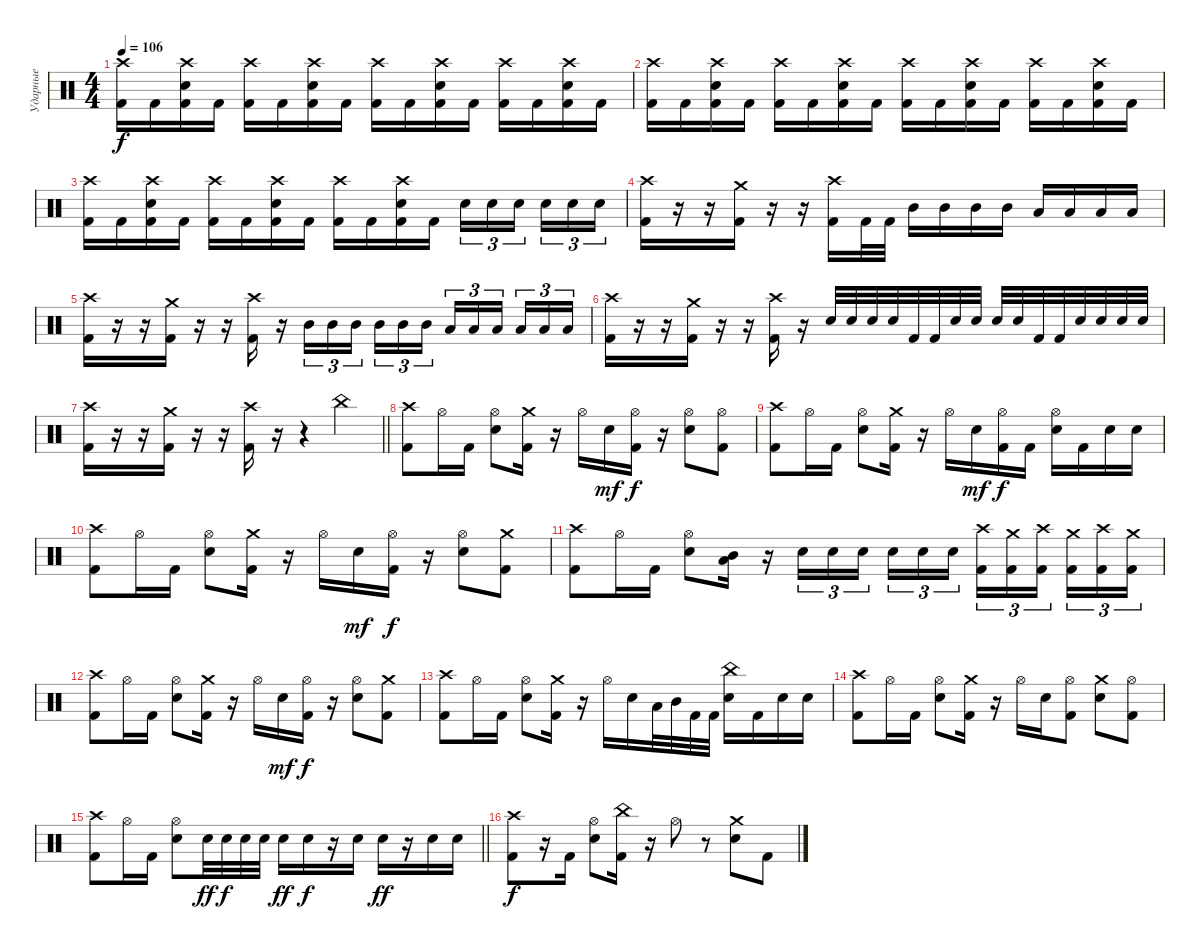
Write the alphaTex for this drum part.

\track ("Ударные" "Ударные") {instrument percussion}
\staff {score}
\articulation defaults
\ts (4 4)
\tempo 106
\clef neutral
\ks c
("Crash high (hit)" "Kick (hit) 2").16{dy f} "Kick (hit) 2".16 ("Crash high (hit)" "Electric Snare (hit)" "Kick (hit) 2").16 "Kick (hit) 2".16 ("Crash high (hit)" "Kick (hit) 2").16 "Kick (hit) 2".16 ("Crash high (hit)" "Electric Snare (hit)" "Kick (hit) 2").16 "Kick (hit) 2".16 ("Crash high (hit)" "Kick (hit) 2").16 "Kick (hit) 2".16 ("Crash high (hit)" "Electric Snare (hit)" "Kick (hit) 2").16 "Kick (hit) 2".16 ("Crash high (hit)" "Kick (hit) 2").16 "Kick (hit) 2".16 ("Crash high (hit)" "Electric Snare (hit)" "Kick (hit) 2").16 "Kick (hit) 2".16 |
("Crash high (hit)" "Kick (hit) 2").16 "Kick (hit) 2".16 ("Crash high (hit)" "Electric Snare (hit)" "Kick (hit) 2").16 "Kick (hit) 2".16 ("Crash high (hit)" "Kick (hit) 2").16 "Kick (hit) 2".16 ("Crash high (hit)" "Electric Snare (hit)" "Kick (hit) 2").16 "Kick (hit) 2".16 ("Crash high (hit)" "Kick (hit) 2").16 "Kick (hit) 2".16 ("Crash high (hit)" "Electric Snare (hit)" "Kick (hit) 2").16 "Kick (hit) 2".16 ("Crash high (hit)" "Kick (hit) 2").16 "Kick (hit) 2".16 ("Crash high (hit)" "Electric Snare (hit)" "Kick (hit) 2").16 "Kick (hit) 2".16 |
("Crash high (hit)" "Kick (hit) 2").16 "Kick (hit) 2".16 ("Crash high (hit)" "Electric Snare (hit)" "Kick (hit) 2").16 "Kick (hit) 2".16 ("Crash high (hit)" "Kick (hit) 2").16 "Kick (hit) 2".16 ("Crash high (hit)" "Electric Snare (hit)" "Kick (hit) 2").16 "Kick (hit) 2".16 ("Crash high (hit)" "Kick (hit) 2").16 "Kick (hit) 2".16 ("Crash high (hit)" "Electric Snare (hit)" "Kick (hit) 2").16 "Kick (hit) 2".16 "Electric Snare (hit)".16{tu (3 2)} "Electric Snare (hit)".16{tu (3 2)} "Electric Snare (hit)".16{tu (3 2) beam splitsecondary} "Electric Snare (hit)".16{tu (3 2)} "Electric Snare (hit)".16{tu (3 2)} "Electric Snare (hit)".16{tu (3 2)} |
("Crash high (hit)" "Kick (hit) 2").16 r.16 r.16 ("Crash medium (hit)" "Kick (hit) 2").16 r.16 r.16 ("Crash high (hit)" "Kick (hit) 2").16 "Kick (hit) 2".32 "Kick (hit) 2".32 "Mid Tom (hit)".16 "Mid Tom (hit)".16 "Mid Tom (hit)".16 "Mid Tom (hit)".16 "Low Tom (hit)".16 "Low Tom (hit)".16 "Low Floor Tom (hit)".16 "Low Floor Tom (hit)".16 |
("Crash high (hit)" "Kick (hit) 2").16 r.16 r.16 ("Crash medium (hit)" "Kick (hit) 2").16 r.16 r.16 ("Crash high (hit)" "Kick (hit) 2").16 r.16 "Mid Tom (hit)".16{tu (3 2)} "Mid Tom (hit)".16{tu (3 2)} "Mid Tom (hit)".16{tu (3 2) beam splitsecondary} "Mid Tom (hit)".16{tu (3 2)} "Mid Tom (hit)".16{tu (3 2)} "Mid Tom (hit)".16{tu (3 2)} "Low Tom (hit)".16{tu (3 2)} "Low Tom (hit)".16{tu (3 2)} "Low Floor Tom (hit)".16{tu (3 2) beam splitsecondary} "Low Floor Tom (hit)".16{tu (3 2)} "Low Floor Tom (hit)".16{tu (3 2)} "Low Floor Tom (hit)".16{tu (3 2)} |
("Crash high (hit)" "Kick (hit) 2").16 r.16 r.16 ("Crash medium (hit)" "Kick (hit) 2").16 r.16 r.16 ("Crash high (hit)" "Kick (hit) 2").16 r.16 "Electric Snare (hit)".32 "Electric Snare (hit)".32 "Electric Snare (hit)".32 "Electric Snare (hit)".32 "Kick (hit) 2".32 "Kick (hit) 2".32 "Electric Snare (hit)".32 "Electric Snare (hit)".32 "Electric Snare (hit)".32 "Electric Snare (hit)".32 "Kick (hit) 2".32 "Kick (hit) 2".32 "Electric Snare (hit)".32 "Electric Snare (hit)".32 "Electric Snare (hit)".32 "Electric Snare (hit)".32 |
\barLineRight lightlight
("Crash high (hit)" "Kick (hit) 2").16 r.16 r.16 ("Crash medium (hit)" "Kick (hit) 2").16 r.16 r.16 ("Crash high (hit)" "Kick (hit) 2").16 r.16 r.4 "China (hit)".4 |
("Crash high (hit)" "Kick (hit) 2").8 "Hi-Hat (open)".16 "Kick (hit) 2".16 ("Hi-Hat (open)" "Electric Snare (hit)").8 ("Crash medium (hit)" "Kick (hit) 2").16 r.16 "Hi-Hat (open)".16 "Electric Snare (hit)".16{dy mf} ("Hi-Hat (open)" "Kick (hit) 2").16{dy f} r.16 ("Hi-Hat (open)" "Electric Snare (hit)").8 ("Hi-Hat (open)" "Kick (hit) 2").8 |
("Crash high (hit)" "Kick (hit) 2").8 "Hi-Hat (open)".16 "Kick (hit) 2".16 ("Hi-Hat (open)" "Electric Snare (hit)").8 ("Crash medium (hit)" "Kick (hit) 2").16 r.16 "Hi-Hat (open)".16 "Electric Snare (hit)".16{dy mf} ("Hi-Hat (open)" "Kick (hit) 2").16{dy f} "Kick (hit) 2".16 ("Hi-Hat (open)" "Electric Snare (hit)").16 "Kick (hit) 2".16 "Electric Snare (hit)".16 "Electric Snare (hit)".16 |
("Crash high (hit)" "Kick (hit) 2").8 "Hi-Hat (open)".16 "Kick (hit) 2".16 ("Hi-Hat (open)" "Electric Snare (hit)").8 ("Crash medium (hit)" "Kick (hit) 2").16 r.16 "Hi-Hat (open)".16 "Electric Snare (hit)".16{dy mf} ("Hi-Hat (open)" "Kick (hit) 2").16{dy f} r.16 ("Hi-Hat (open)" "Electric Snare (hit)").8 ("Crash medium (hit)" "Kick (hit) 2").8 |
("Crash high (hit)" "Kick (hit) 2").8 "Hi-Hat (open)".16 "Kick (hit) 2".16 ("Hi-Hat (open)" "Electric Snare (hit)").8 ("Mid Tom (hit)" "Low Floor Tom (hit)").16 r.16 "Electric Snare (hit)".16{tu (3 2)} "Electric Snare (hit)".16{tu (3 2)} "Electric Snare (hit)".16{tu (3 2) beam splitsecondary} "Electric Snare (hit)".16{tu (3 2)} "Electric Snare (hit)".16{tu (3 2)} "Electric Snare (hit)".16{tu (3 2)} ("Crash high (hit)" "Kick (hit) 2").16{tu (3 2)} ("Crash medium (hit)" "Kick (hit) 2").16{tu (3 2)} ("Crash high (hit)" "Kick (hit) 2").16{tu (3 2) beam splitsecondary} ("Crash medium (hit)" "Kick (hit) 2").16{tu (3 2)} ("Crash high (hit)" "Kick (hit) 2").16{tu (3 2)} ("Crash medium (hit)" "Kick (hit) 2").16{tu (3 2)} |
("Crash high (hit)" "Kick (hit) 2").8 "Hi-Hat (open)".16 "Kick (hit) 2".16 ("Hi-Hat (open)" "Electric Snare (hit)").8 ("Crash medium (hit)" "Kick (hit) 2").16 r.16 "Hi-Hat (open)".16 "Electric Snare (hit)".16{dy mf} ("Hi-Hat (open)" "Kick (hit) 2").16{dy f} r.16 ("Hi-Hat (open)" "Electric Snare (hit)").8 ("Crash medium (hit)" "Kick (hit) 2").8 |
("Crash high (hit)" "Kick (hit) 2").8 "Hi-Hat (open)".16 "Kick (hit) 2".16 ("Hi-Hat (open)" "Electric Snare (hit)").8 ("Crash medium (hit)" "Kick (hit) 2").16 r.16 "Hi-Hat (open)".16 "Electric Snare (hit)".16 "Low Floor Tom (hit)".32 "Mid Tom (hit)".32 "Kick (hit) 2".32 "Kick (hit) 2".32 ("China (hit)" "Electric Snare (hit)").16 "Kick (hit) 2".16 "Electric Snare (hit)".16 "Electric Snare (hit)".16 |
("Crash high (hit)" "Kick (hit) 2").8 "Hi-Hat (open)".16 "Kick (hit) 2".16 ("Hi-Hat (open)" "Electric Snare (hit)").8 ("Crash medium (hit)" "Kick (hit) 2").16 r.16 "Hi-Hat (open)".16 "Electric Snare (hit)".16 ("Hi-Hat (open)" "Kick (hit) 2").8 ("Crash medium (hit)" "Electric Snare (hit)").8 ("Hi-Hat (open)" "Kick (hit) 2").8 |
\barLineRight lightlight
("Crash high (hit)" "Kick (hit) 2").8 "Hi-Hat (open)".16 "Kick (hit) 2".16 ("Hi-Hat (open)" "Electric Snare (hit)").8 "Electric Snare (hit)".32{dy ff} "Electric Snare (hit)".32{dy f} "Electric Snare (hit)".32 "Electric Snare (hit)".32 "Electric Snare (hit)".16{dy ff} "Electric Snare (hit)".16{dy f} r.16 "Electric Snare (hit)".16 "Electric Snare (hit)".16{dy ff} r.16 "Electric Snare (hit)".16 "Electric Snare (hit)".16 |
("Crash high (hit)" "Kick (hit) 2").8{dy f} r.16 "Kick (hit) 2".16 ("Hi-Hat (open)" "Electric Snare (hit)").8 ("China (hit)" "Kick (hit) 2").16 r.16 "Hi-Hat (open)".8 r.8 ("Crash medium (hit)" "Electric Snare (hit)").8 "Kick (hit) 2".8
